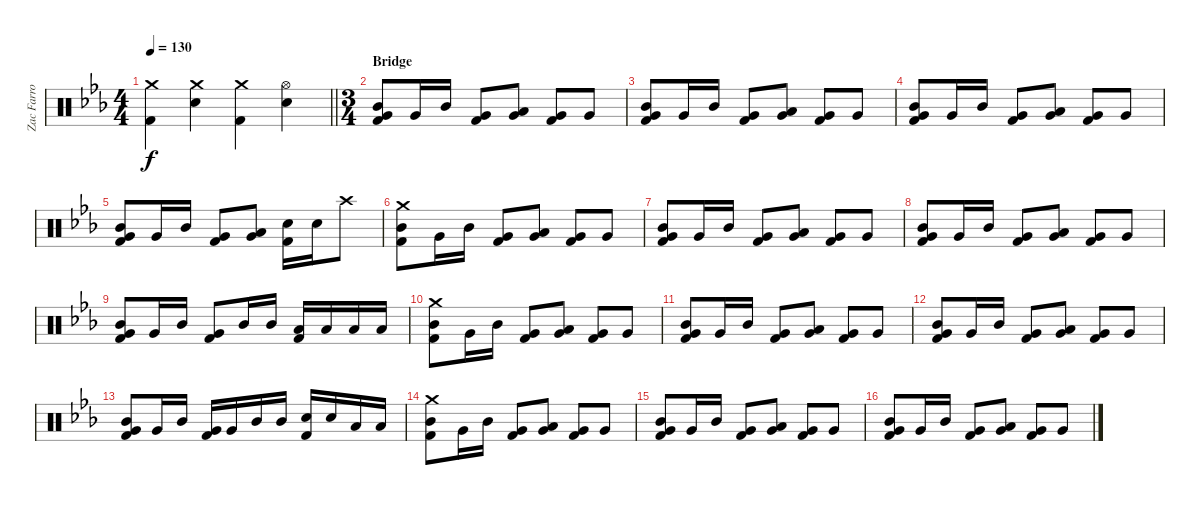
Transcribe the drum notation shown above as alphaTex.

\track ("Zac Farro (Drums)" "Zac Farro ") {instrument percussion}
\staff {score}
\articulation defaults
\ts (4 4)
\tempo 130
\clef neutral
\barLineRight lightlight
\ks eb
("Crash medium (hit)" "Kick (hit) 2").4{dy f} ("Crash medium (hit)" "Electric Snare (hit)").4 ("Crash medium (hit)" "Kick (hit) 2").4 ("Hi-Hat (open)" "Electric Snare (hit)").4 |
\ts (3 4)
\section ("" "Bridge")
("Kick (hit) 2" "Very Low Tom (hit)" "Mid Tom (hit)").8 "Very Low Tom (hit)".16 "Mid Tom (hit)".16 ("Kick (hit) 2" "Very Low Tom (hit)").8 ("Very Low Tom (hit)" "Low Tom (hit)").8 ("Kick (hit) 2" "Very Low Tom (hit)").8 "Very Low Tom (hit)".8 |
("Kick (hit) 2" "Very Low Tom (hit)" "Mid Tom (hit)").8 "Very Low Tom (hit)".16 "Mid Tom (hit)".16 ("Kick (hit) 2" "Very Low Tom (hit)").8 ("Very Low Tom (hit)" "Low Tom (hit)").8 ("Kick (hit) 2" "Very Low Tom (hit)").8 "Very Low Tom (hit)".8 |
("Kick (hit) 2" "Very Low Tom (hit)" "Mid Tom (hit)").8 "Very Low Tom (hit)".16 "Mid Tom (hit)".16 ("Kick (hit) 2" "Very Low Tom (hit)").8 ("Very Low Tom (hit)" "Low Tom (hit)").8 ("Kick (hit) 2" "Very Low Tom (hit)").8 "Very Low Tom (hit)".8 |
("Kick (hit) 2" "Very Low Tom (hit)" "Mid Tom (hit)").8 "Very Low Tom (hit)".16 "Mid Tom (hit)".16 ("Kick (hit) 2" "Very Low Tom (hit)").8 ("Very Low Tom (hit)" "Low Tom (hit)").8 ("Electric Snare (hit)" "Kick (hit) 2").16 "Electric Snare (hit)".16 "Crash high (hit)".8 |
("Crash medium (hit)" "Kick (hit) 2" "Mid Tom (hit)").8 "Very Low Tom (hit)".16 "Mid Tom (hit)".16 ("Kick (hit) 2" "Very Low Tom (hit)").8 ("Very Low Tom (hit)" "Low Tom (hit)").8 ("Kick (hit) 2" "Very Low Tom (hit)").8 "Very Low Tom (hit)".8 |
("Kick (hit) 2" "Very Low Tom (hit)" "Mid Tom (hit)").8 "Very Low Tom (hit)".16 "Mid Tom (hit)".16 ("Kick (hit) 2" "Very Low Tom (hit)").8 ("Very Low Tom (hit)" "Low Tom (hit)").8 ("Kick (hit) 2" "Very Low Tom (hit)").8 "Very Low Tom (hit)".8 |
("Kick (hit) 2" "Very Low Tom (hit)" "Mid Tom (hit)").8 "Very Low Tom (hit)".16 "Mid Tom (hit)".16 ("Kick (hit) 2" "Very Low Tom (hit)").8 ("Very Low Tom (hit)" "Low Tom (hit)").8 ("Kick (hit) 2" "Very Low Tom (hit)").8 "Very Low Tom (hit)".8 |
("Kick (hit) 2" "Very Low Tom (hit)" "Mid Tom (hit)").8 "Very Low Tom (hit)".16 "Mid Tom (hit)".16 ("Kick (hit) 2" "Very Low Tom (hit)").8 "Mid Tom (hit)".16 "Mid Tom (hit)".16 ("Kick (hit) 2" "Low Tom (hit)").16 "Low Tom (hit)".16 "Low Tom (hit)".16 "Low Tom (hit)".16 |
("Crash medium (hit)" "Kick (hit) 2" "Mid Tom (hit)").8 "Very Low Tom (hit)".16 "Mid Tom (hit)".16 ("Kick (hit) 2" "Very Low Tom (hit)").8 ("Very Low Tom (hit)" "Low Tom (hit)").8 ("Kick (hit) 2" "Very Low Tom (hit)").8 "Very Low Tom (hit)".8 |
("Kick (hit) 2" "Very Low Tom (hit)" "Mid Tom (hit)").8 "Very Low Tom (hit)".16 "Mid Tom (hit)".16 ("Kick (hit) 2" "Very Low Tom (hit)").8 ("Very Low Tom (hit)" "Low Tom (hit)").8 ("Kick (hit) 2" "Very Low Tom (hit)").8 "Very Low Tom (hit)".8 |
("Kick (hit) 2" "Very Low Tom (hit)" "Mid Tom (hit)").8 "Very Low Tom (hit)".16 "Mid Tom (hit)".16 ("Kick (hit) 2" "Very Low Tom (hit)").8 ("Very Low Tom (hit)" "Low Tom (hit)").8 ("Kick (hit) 2" "Very Low Tom (hit)").8 "Very Low Tom (hit)".8 |
("Kick (hit) 2" "Very Low Tom (hit)" "Mid Tom (hit)").8 "Very Low Tom (hit)".16 "Mid Tom (hit)".16 ("Kick (hit) 2" "Very Low Tom (hit)").16 "Very Low Tom (hit)".16 "Mid Tom (hit)".16 "Mid Tom (hit)".16 ("Electric Snare (hit)" "Kick (hit) 2").16 "Electric Snare (hit)".16 "Low Tom (hit)".16 "Low Tom (hit)".16 |
("Crash medium (hit)" "Kick (hit) 2" "Mid Tom (hit)").8 "Very Low Tom (hit)".16 "Mid Tom (hit)".16 ("Kick (hit) 2" "Very Low Tom (hit)").8 ("Very Low Tom (hit)" "Low Tom (hit)").8 ("Kick (hit) 2" "Very Low Tom (hit)").8 "Very Low Tom (hit)".8 |
("Kick (hit) 2" "Very Low Tom (hit)" "Mid Tom (hit)").8 "Very Low Tom (hit)".16 "Mid Tom (hit)".16 ("Kick (hit) 2" "Very Low Tom (hit)").8 ("Very Low Tom (hit)" "Low Tom (hit)").8 ("Kick (hit) 2" "Very Low Tom (hit)").8 "Very Low Tom (hit)".8 |
("Kick (hit) 2" "Very Low Tom (hit)" "Mid Tom (hit)").8 "Very Low Tom (hit)".16 "Mid Tom (hit)".16 ("Kick (hit) 2" "Very Low Tom (hit)").8 ("Very Low Tom (hit)" "Low Tom (hit)").8 ("Kick (hit) 2" "Very Low Tom (hit)").8 "Very Low Tom (hit)".8
